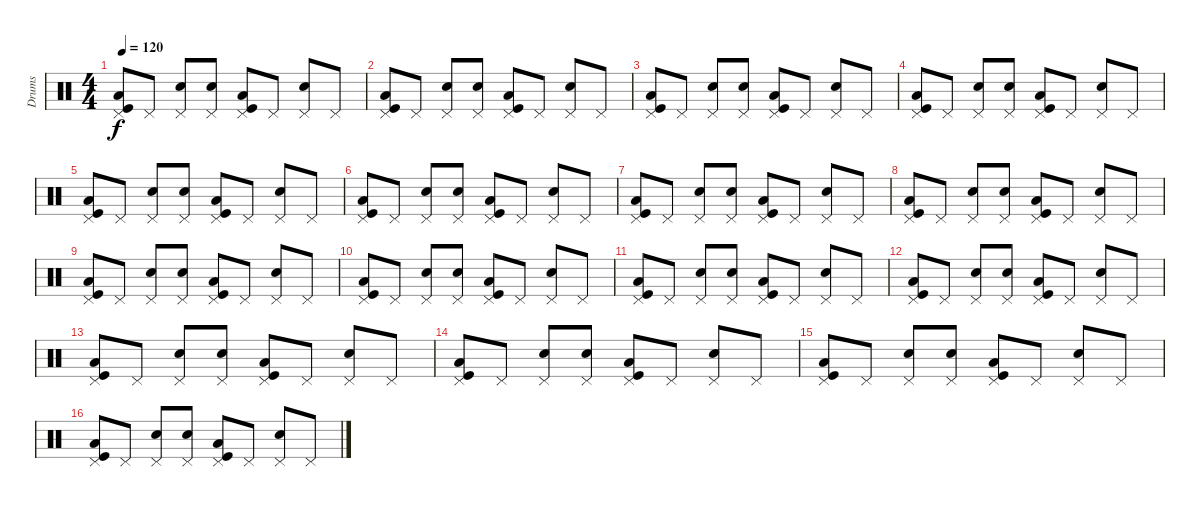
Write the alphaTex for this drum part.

\track ("Drums" "Drums") {instrument percussion}
\staff {score}
\articulation defaults
\ts (4 4)
\tempo 120
\clef neutral
\ks c
("Kick (hit)" "Pedal Hi-Hat (hit)" "Low Floor Tom (hit)").8{dy f} "Pedal Hi-Hat (hit)".8 ("Snare (hit) 2" "Pedal Hi-Hat (hit)").8 ("Snare (hit) 2" "Pedal Hi-Hat (hit)").8 ("Kick (hit)" "Pedal Hi-Hat (hit)" "Low Floor Tom (hit)").8 "Pedal Hi-Hat (hit)".8 ("Snare (hit) 2" "Pedal Hi-Hat (hit)").8 "Pedal Hi-Hat (hit)".8 |
("Kick (hit)" "Pedal Hi-Hat (hit)" "Low Floor Tom (hit)").8 "Pedal Hi-Hat (hit)".8 ("Snare (hit) 2" "Pedal Hi-Hat (hit)").8 ("Snare (hit) 2" "Pedal Hi-Hat (hit)").8 ("Kick (hit)" "Pedal Hi-Hat (hit)" "Low Floor Tom (hit)").8 "Pedal Hi-Hat (hit)".8 ("Snare (hit) 2" "Pedal Hi-Hat (hit)").8 "Pedal Hi-Hat (hit)".8 |
("Kick (hit)" "Pedal Hi-Hat (hit)" "Low Floor Tom (hit)").8 "Pedal Hi-Hat (hit)".8 ("Snare (hit) 2" "Pedal Hi-Hat (hit)").8 ("Snare (hit) 2" "Pedal Hi-Hat (hit)").8 ("Kick (hit)" "Pedal Hi-Hat (hit)" "Low Floor Tom (hit)").8 "Pedal Hi-Hat (hit)".8 ("Snare (hit) 2" "Pedal Hi-Hat (hit)").8 "Pedal Hi-Hat (hit)".8 |
("Kick (hit)" "Pedal Hi-Hat (hit)" "Low Floor Tom (hit)").8 "Pedal Hi-Hat (hit)".8 ("Snare (hit) 2" "Pedal Hi-Hat (hit)").8 ("Snare (hit) 2" "Pedal Hi-Hat (hit)").8 ("Kick (hit)" "Pedal Hi-Hat (hit)" "Low Floor Tom (hit)").8 "Pedal Hi-Hat (hit)".8 ("Snare (hit) 2" "Pedal Hi-Hat (hit)").8 "Pedal Hi-Hat (hit)".8 |
("Kick (hit)" "Pedal Hi-Hat (hit)" "Low Floor Tom (hit)").8 "Pedal Hi-Hat (hit)".8 ("Snare (hit) 2" "Pedal Hi-Hat (hit)").8 ("Snare (hit) 2" "Pedal Hi-Hat (hit)").8 ("Kick (hit)" "Pedal Hi-Hat (hit)" "Low Floor Tom (hit)").8 "Pedal Hi-Hat (hit)".8 ("Snare (hit) 2" "Pedal Hi-Hat (hit)").8 "Pedal Hi-Hat (hit)".8 |
("Kick (hit)" "Pedal Hi-Hat (hit)" "Low Floor Tom (hit)").8 "Pedal Hi-Hat (hit)".8 ("Snare (hit) 2" "Pedal Hi-Hat (hit)").8 ("Snare (hit) 2" "Pedal Hi-Hat (hit)").8 ("Kick (hit)" "Pedal Hi-Hat (hit)" "Low Floor Tom (hit)").8 "Pedal Hi-Hat (hit)".8 ("Snare (hit) 2" "Pedal Hi-Hat (hit)").8 "Pedal Hi-Hat (hit)".8 |
("Kick (hit)" "Pedal Hi-Hat (hit)" "Low Floor Tom (hit)").8 "Pedal Hi-Hat (hit)".8 ("Snare (hit) 2" "Pedal Hi-Hat (hit)").8 ("Snare (hit) 2" "Pedal Hi-Hat (hit)").8 ("Kick (hit)" "Pedal Hi-Hat (hit)" "Low Floor Tom (hit)").8 "Pedal Hi-Hat (hit)".8 ("Snare (hit) 2" "Pedal Hi-Hat (hit)").8 "Pedal Hi-Hat (hit)".8 |
("Kick (hit)" "Pedal Hi-Hat (hit)" "Low Floor Tom (hit)").8 "Pedal Hi-Hat (hit)".8 ("Snare (hit) 2" "Pedal Hi-Hat (hit)").8 ("Snare (hit) 2" "Pedal Hi-Hat (hit)").8 ("Kick (hit)" "Pedal Hi-Hat (hit)" "Low Floor Tom (hit)").8 "Pedal Hi-Hat (hit)".8 ("Snare (hit) 2" "Pedal Hi-Hat (hit)").8 "Pedal Hi-Hat (hit)".8 |
("Kick (hit)" "Pedal Hi-Hat (hit)" "Low Floor Tom (hit)").8 "Pedal Hi-Hat (hit)".8 ("Snare (hit) 2" "Pedal Hi-Hat (hit)").8 ("Snare (hit) 2" "Pedal Hi-Hat (hit)").8 ("Kick (hit)" "Pedal Hi-Hat (hit)" "Low Floor Tom (hit)").8 "Pedal Hi-Hat (hit)".8 ("Snare (hit) 2" "Pedal Hi-Hat (hit)").8 "Pedal Hi-Hat (hit)".8 |
("Kick (hit)" "Pedal Hi-Hat (hit)" "Low Floor Tom (hit)").8 "Pedal Hi-Hat (hit)".8 ("Snare (hit) 2" "Pedal Hi-Hat (hit)").8 ("Snare (hit) 2" "Pedal Hi-Hat (hit)").8 ("Kick (hit)" "Pedal Hi-Hat (hit)" "Low Floor Tom (hit)").8 "Pedal Hi-Hat (hit)".8 ("Snare (hit) 2" "Pedal Hi-Hat (hit)").8 "Pedal Hi-Hat (hit)".8 |
("Kick (hit)" "Pedal Hi-Hat (hit)" "Low Floor Tom (hit)").8 "Pedal Hi-Hat (hit)".8 ("Snare (hit) 2" "Pedal Hi-Hat (hit)").8 ("Snare (hit) 2" "Pedal Hi-Hat (hit)").8 ("Kick (hit)" "Pedal Hi-Hat (hit)" "Low Floor Tom (hit)").8 "Pedal Hi-Hat (hit)".8 ("Snare (hit) 2" "Pedal Hi-Hat (hit)").8 "Pedal Hi-Hat (hit)".8 |
("Kick (hit)" "Pedal Hi-Hat (hit)" "Low Floor Tom (hit)").8 "Pedal Hi-Hat (hit)".8 ("Snare (hit) 2" "Pedal Hi-Hat (hit)").8 ("Snare (hit) 2" "Pedal Hi-Hat (hit)").8 ("Kick (hit)" "Pedal Hi-Hat (hit)" "Low Floor Tom (hit)").8 "Pedal Hi-Hat (hit)".8 ("Snare (hit) 2" "Pedal Hi-Hat (hit)").8 "Pedal Hi-Hat (hit)".8 |
("Kick (hit)" "Pedal Hi-Hat (hit)" "Low Floor Tom (hit)").8 "Pedal Hi-Hat (hit)".8 ("Snare (hit) 2" "Pedal Hi-Hat (hit)").8 ("Snare (hit) 2" "Pedal Hi-Hat (hit)").8 ("Kick (hit)" "Pedal Hi-Hat (hit)" "Low Floor Tom (hit)").8 "Pedal Hi-Hat (hit)".8 ("Snare (hit) 2" "Pedal Hi-Hat (hit)").8 "Pedal Hi-Hat (hit)".8 |
("Kick (hit)" "Pedal Hi-Hat (hit)" "Low Floor Tom (hit)").8 "Pedal Hi-Hat (hit)".8 ("Snare (hit) 2" "Pedal Hi-Hat (hit)").8 ("Snare (hit) 2" "Pedal Hi-Hat (hit)").8 ("Kick (hit)" "Pedal Hi-Hat (hit)" "Low Floor Tom (hit)").8 "Pedal Hi-Hat (hit)".8 ("Snare (hit) 2" "Pedal Hi-Hat (hit)").8 "Pedal Hi-Hat (hit)".8 |
("Kick (hit)" "Pedal Hi-Hat (hit)" "Low Floor Tom (hit)").8 "Pedal Hi-Hat (hit)".8 ("Snare (hit) 2" "Pedal Hi-Hat (hit)").8 ("Snare (hit) 2" "Pedal Hi-Hat (hit)").8 ("Kick (hit)" "Pedal Hi-Hat (hit)" "Low Floor Tom (hit)").8 "Pedal Hi-Hat (hit)".8 ("Snare (hit) 2" "Pedal Hi-Hat (hit)").8 "Pedal Hi-Hat (hit)".8 |
("Kick (hit)" "Pedal Hi-Hat (hit)" "Low Floor Tom (hit)").8 "Pedal Hi-Hat (hit)".8 ("Snare (hit) 2" "Pedal Hi-Hat (hit)").8 ("Snare (hit) 2" "Pedal Hi-Hat (hit)").8 ("Kick (hit)" "Pedal Hi-Hat (hit)" "Low Floor Tom (hit)").8 "Pedal Hi-Hat (hit)".8 ("Snare (hit) 2" "Pedal Hi-Hat (hit)").8 "Pedal Hi-Hat (hit)".8
